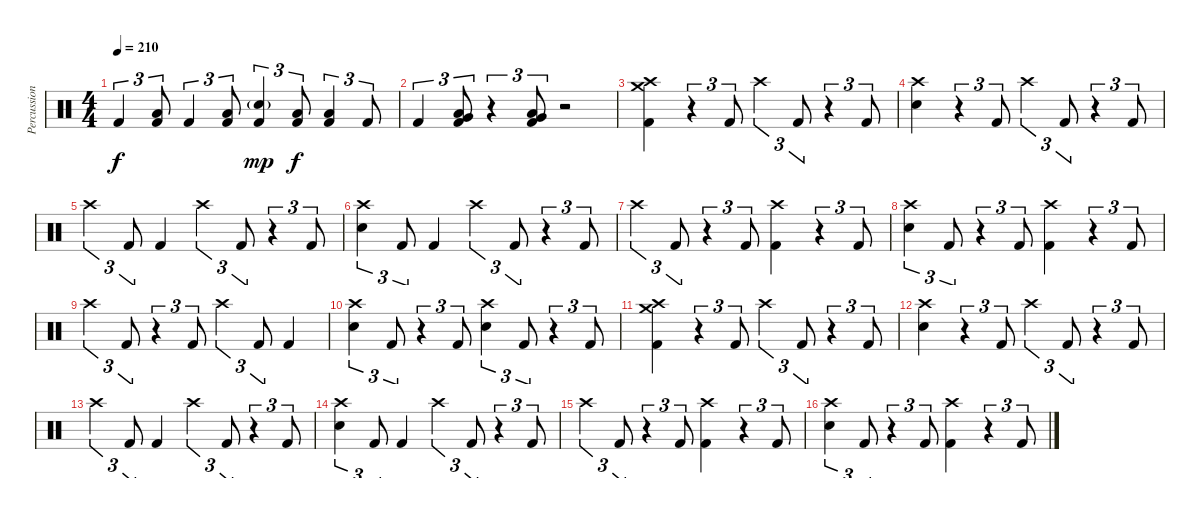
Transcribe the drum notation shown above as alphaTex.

\track ("Percussion" "Percussion") {instrument percussion}
\staff {score}
\articulation defaults
\ts (4 4)
\tempo 210
\clef neutral
\ks c "Kick (hit) 2".4{tu (3 2) dy f}
("Low Floor Tom (hit)" "Kick (hit) 2").8{tu (3 2)} "Kick (hit) 2".4{tu (3 2)} ("Low Floor Tom (hit)" "Kick (hit) 2").8{tu (3 2)} ("Electric Snare (hit)"{g} "Kick (hit) 2").4{tu (3 2) dy mp} ("Low Floor Tom (hit)" "Kick (hit) 2").8{tu (3 2) dy f} ("Low Floor Tom (hit)" "Kick (hit) 2").4{tu (3 2)} "Kick (hit) 2".8{tu (3 2)} |
"Kick (hit) 2".4{tu (3 2)} ("Very Low Tom (hit)" "Low Floor Tom (hit)" "Kick (hit) 2").8{tu (3 2)} r.4{tu (3 2)} ("Very Low Tom (hit)" "Low Floor Tom (hit)" "Kick (hit) 2").8{tu (3 2)} r.2 |
("Crash medium (hit)" "Crash high (hit)" "Kick (hit) 2").4 r.4{tu (3 2)} "Kick (hit) 2".8{tu (3 2)} "Crash high (hit)".4{tu (3 2)} "Kick (hit) 2".8{tu (3 2)} r.4{tu (3 2)} "Kick (hit) 2".8{tu (3 2)} |
("Crash high (hit)" "Electric Snare (hit)").4 r.4{tu (3 2)} "Kick (hit) 2".8{tu (3 2)} "Crash high (hit)".4{tu (3 2)} "Kick (hit) 2".8{tu (3 2)} r.4{tu (3 2)} "Kick (hit) 2".8{tu (3 2)} |
"Crash high (hit)".4{tu (3 2)} "Kick (hit) 2".8{tu (3 2)} "Kick (hit) 2".4 "Crash high (hit)".4{tu (3 2)} "Kick (hit) 2".8{tu (3 2)} r.4{tu (3 2)} "Kick (hit) 2".8{tu (3 2)} |
("Crash high (hit)" "Electric Snare (hit)").4{tu (3 2)} "Kick (hit) 2".8{tu (3 2)} "Kick (hit) 2".4 "Crash high (hit)".4{tu (3 2)} "Kick (hit) 2".8{tu (3 2)} r.4{tu (3 2)} "Kick (hit) 2".8{tu (3 2)} |
"Crash high (hit)".4{tu (3 2)} "Kick (hit) 2".8{tu (3 2)} r.4{tu (3 2)} "Kick (hit) 2".8{tu (3 2)} ("Crash high (hit)" "Kick (hit) 2").4 r.4{tu (3 2)} "Kick (hit) 2".8{tu (3 2)} |
("Crash high (hit)" "Electric Snare (hit)").4{tu (3 2)} "Kick (hit) 2".8{tu (3 2)} r.4{tu (3 2)} "Kick (hit) 2".8{tu (3 2)} ("Crash high (hit)" "Kick (hit) 2").4 r.4{tu (3 2)} "Kick (hit) 2".8{tu (3 2)} |
"Crash high (hit)".4{tu (3 2)} "Kick (hit) 2".8{tu (3 2)} r.4{tu (3 2)} "Kick (hit) 2".8{tu (3 2)} "Crash high (hit)".4{tu (3 2)} "Kick (hit) 2".8{tu (3 2)} "Kick (hit) 2".4 |
("Crash high (hit)" "Electric Snare (hit)").4{tu (3 2)} "Kick (hit) 2".8{tu (3 2)} r.4{tu (3 2)} "Kick (hit) 2".8{tu (3 2)} ("Crash high (hit)" "Electric Snare (hit)").4{tu (3 2)} "Kick (hit) 2".8{tu (3 2)} r.4{tu (3 2)} "Kick (hit) 2".8{tu (3 2)} |
("Crash medium (hit)" "Crash high (hit)" "Kick (hit) 2").4 r.4{tu (3 2)} "Kick (hit) 2".8{tu (3 2)} "Crash high (hit)".4{tu (3 2)} "Kick (hit) 2".8{tu (3 2)} r.4{tu (3 2)} "Kick (hit) 2".8{tu (3 2)} |
("Crash high (hit)" "Electric Snare (hit)").4 r.4{tu (3 2)} "Kick (hit) 2".8{tu (3 2)} "Crash high (hit)".4{tu (3 2)} "Kick (hit) 2".8{tu (3 2)} r.4{tu (3 2)} "Kick (hit) 2".8{tu (3 2)} |
"Crash high (hit)".4{tu (3 2)} "Kick (hit) 2".8{tu (3 2)} "Kick (hit) 2".4 "Crash high (hit)".4{tu (3 2)} "Kick (hit) 2".8{tu (3 2)} r.4{tu (3 2)} "Kick (hit) 2".8{tu (3 2)} |
("Crash high (hit)" "Electric Snare (hit)").4{tu (3 2)} "Kick (hit) 2".8{tu (3 2)} "Kick (hit) 2".4 "Crash high (hit)".4{tu (3 2)} "Kick (hit) 2".8{tu (3 2)} r.4{tu (3 2)} "Kick (hit) 2".8{tu (3 2)} |
"Crash high (hit)".4{tu (3 2)} "Kick (hit) 2".8{tu (3 2)} r.4{tu (3 2)} "Kick (hit) 2".8{tu (3 2)} ("Crash high (hit)" "Kick (hit) 2").4 r.4{tu (3 2)} "Kick (hit) 2".8{tu (3 2)} |
("Crash high (hit)" "Electric Snare (hit)").4{tu (3 2)} "Kick (hit) 2".8{tu (3 2)} r.4{tu (3 2)} "Kick (hit) 2".8{tu (3 2)} ("Crash high (hit)" "Kick (hit) 2").4 r.4{tu (3 2)} "Kick (hit) 2".8{tu (3 2)}
